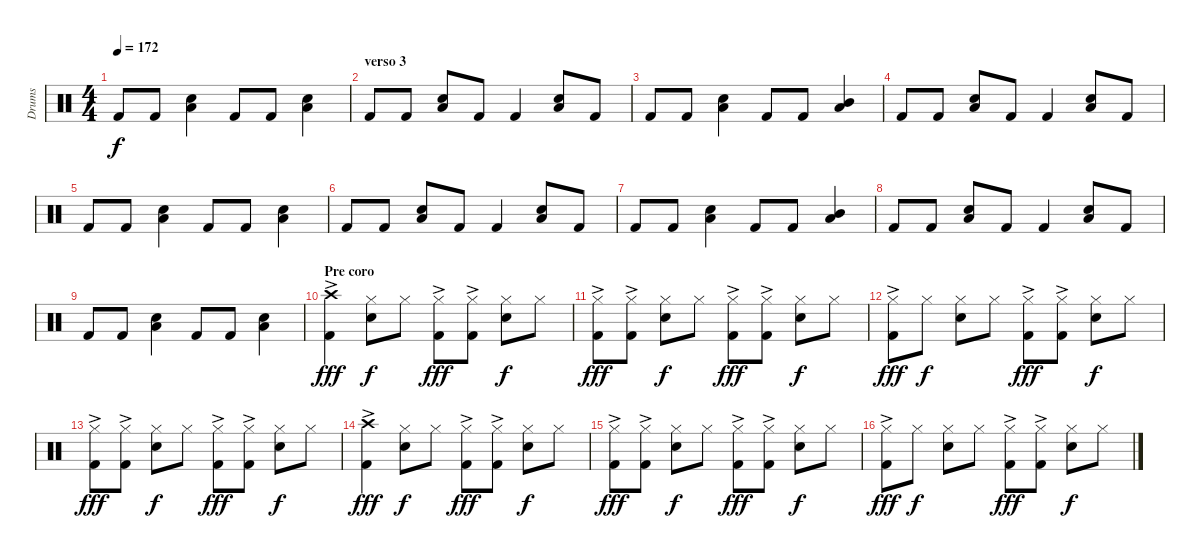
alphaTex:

\track ("Drums" "Drums") {instrument percussion}
\staff {score}
\articulation defaults
\ts (4 4)
\tempo 172
\clef neutral
\ks c "Kick (hit) 2".8{dy f} "Kick (hit) 2".8
("Electric Snare (hit)" "Low Floor Tom (hit)").4 "Kick (hit) 2".8 "Kick (hit) 2".8 ("Electric Snare (hit)" "Low Floor Tom (hit)").4 |
\section ("" "verso 3")
"Kick (hit) 2".8 "Kick (hit) 2".8 ("Electric Snare (hit)" "Low Floor Tom (hit)").8 "Kick (hit) 2".8 "Kick (hit) 2".4 ("Electric Snare (hit)" "Low Floor Tom (hit)").8 "Kick (hit) 2".8 |
"Kick (hit) 2".8 "Kick (hit) 2".8 ("Electric Snare (hit)" "Low Floor Tom (hit)").4 "Kick (hit) 2".8 "Kick (hit) 2".8 ("Low Tom (hit)" "Mid Tom (hit)").4 |
"Kick (hit) 2".8 "Kick (hit) 2".8 ("Electric Snare (hit)" "Low Floor Tom (hit)").8 "Kick (hit) 2".8 "Kick (hit) 2".4 ("Electric Snare (hit)" "Low Floor Tom (hit)").8 "Kick (hit) 2".8 |
"Kick (hit) 2".8 "Kick (hit) 2".8 ("Electric Snare (hit)" "Low Floor Tom (hit)").4 "Kick (hit) 2".8 "Kick (hit) 2".8 ("Electric Snare (hit)" "Low Floor Tom (hit)").4 |
"Kick (hit) 2".8 "Kick (hit) 2".8 ("Electric Snare (hit)" "Low Floor Tom (hit)").8 "Kick (hit) 2".8 "Kick (hit) 2".4 ("Electric Snare (hit)" "Low Floor Tom (hit)").8 "Kick (hit) 2".8 |
"Kick (hit) 2".8 "Kick (hit) 2".8 ("Electric Snare (hit)" "Low Floor Tom (hit)").4 "Kick (hit) 2".8 "Kick (hit) 2".8 ("Low Tom (hit)" "Mid Tom (hit)").4 |
"Kick (hit) 2".8 "Kick (hit) 2".8 ("Electric Snare (hit)" "Low Floor Tom (hit)").8 "Kick (hit) 2".8 "Kick (hit) 2".4 ("Electric Snare (hit)" "Low Floor Tom (hit)").8 "Kick (hit) 2".8 |
"Kick (hit) 2".8 "Kick (hit) 2".8 ("Electric Snare (hit)" "Low Floor Tom (hit)").4 "Kick (hit) 2".8 "Kick (hit) 2".8 ("Electric Snare (hit)" "Low Floor Tom (hit)").4 |
\section ("" "Pre coro")
("Crash high (hit)" "Kick (hit) 2"{ac}).4{dy fff} ("Hi-Hat (closed)" "Electric Snare (hit)").8{dy f} "Hi-Hat (closed)".8 ("Hi-Hat (closed)" "Kick (hit) 2"{ac}).8{dy fff} ("Hi-Hat (closed)" "Kick (hit) 2"{ac}).8 ("Hi-Hat (closed)" "Electric Snare (hit)").8{dy f} "Hi-Hat (closed)".8 |
("Hi-Hat (closed)" "Kick (hit) 2"{ac}).8{dy fff} ("Hi-Hat (closed)" "Kick (hit) 2"{ac}).8 ("Hi-Hat (closed)" "Electric Snare (hit)").8{dy f} "Hi-Hat (closed)".8 ("Hi-Hat (closed)" "Kick (hit) 2"{ac}).8{dy fff} ("Hi-Hat (closed)" "Kick (hit) 2"{ac}).8 ("Hi-Hat (closed)" "Electric Snare (hit)").8{dy f} "Hi-Hat (closed)".8 |
("Hi-Hat (closed)" "Kick (hit) 2"{ac}).8{dy fff} "Hi-Hat (closed)".8{dy f} ("Hi-Hat (closed)" "Electric Snare (hit)").8 "Hi-Hat (closed)".8 ("Hi-Hat (closed)" "Kick (hit) 2"{ac}).8{dy fff} ("Hi-Hat (closed)" "Kick (hit) 2"{ac}).8 ("Hi-Hat (closed)" "Electric Snare (hit)").8{dy f} "Hi-Hat (closed)".8 |
("Hi-Hat (closed)" "Kick (hit) 2"{ac}).8{dy fff} ("Hi-Hat (closed)" "Kick (hit) 2"{ac}).8 ("Hi-Hat (closed)" "Electric Snare (hit)").8{dy f} "Hi-Hat (closed)".8 ("Hi-Hat (closed)" "Kick (hit) 2"{ac}).8{dy fff} ("Hi-Hat (closed)" "Kick (hit) 2"{ac}).8 ("Hi-Hat (closed)" "Electric Snare (hit)").8{dy f} "Hi-Hat (closed)".8 |
("Crash high (hit)" "Kick (hit) 2"{ac}).4{dy fff} ("Hi-Hat (closed)" "Electric Snare (hit)").8{dy f} "Hi-Hat (closed)".8 ("Hi-Hat (closed)" "Kick (hit) 2"{ac}).8{dy fff} ("Hi-Hat (closed)" "Kick (hit) 2"{ac}).8 ("Hi-Hat (closed)" "Electric Snare (hit)").8{dy f} "Hi-Hat (closed)".8 |
("Hi-Hat (closed)" "Kick (hit) 2"{ac}).8{dy fff} ("Hi-Hat (closed)" "Kick (hit) 2"{ac}).8 ("Hi-Hat (closed)" "Electric Snare (hit)").8{dy f} "Hi-Hat (closed)".8 ("Hi-Hat (closed)" "Kick (hit) 2"{ac}).8{dy fff} ("Hi-Hat (closed)" "Kick (hit) 2"{ac}).8 ("Hi-Hat (closed)" "Electric Snare (hit)").8{dy f} "Hi-Hat (closed)".8 |
("Hi-Hat (closed)" "Kick (hit) 2"{ac}).8{dy fff} "Hi-Hat (closed)".8{dy f} ("Hi-Hat (closed)" "Electric Snare (hit)").8 "Hi-Hat (closed)".8 ("Hi-Hat (closed)" "Kick (hit) 2"{ac}).8{dy fff} ("Hi-Hat (closed)" "Kick (hit) 2"{ac}).8 ("Hi-Hat (closed)" "Electric Snare (hit)").8{dy f} "Hi-Hat (closed)".8
